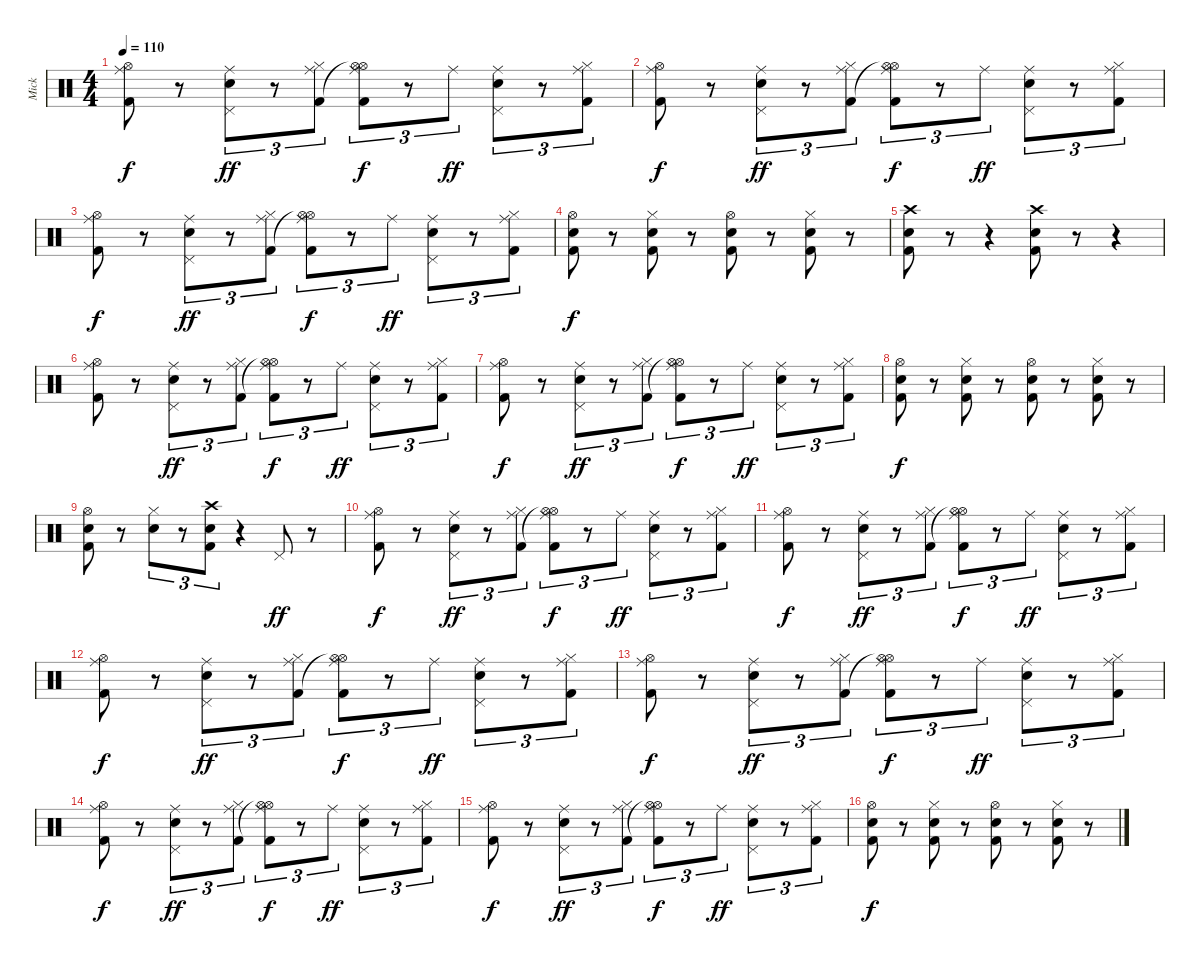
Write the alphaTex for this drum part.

\track ("Mick" "Mick") {instrument percussion}
\staff {score}
\articulation defaults
\ts (4 4)
\tempo 110
\clef neutral
\ks c
("Ride (middle)" "Hi-Hat (open)" "Kick (hit) 2").8{dy f} r.8 ("Ride (middle)" "Pedal Hi-Hat (hit)" "Snare (hit) 2").8{tu (3 2) dy ff} r.8{tu (3 2)} ("Ride (middle)" "Hi-Hat (closed)" "Kick (hit) 2").8{tu (3 2)} ("Hi-Hat (open)" "Ride (middle)" "Hi-Hat (open)"{t} "Kick (hit) 2").8{tu (3 2) dy f} r.8{tu (3 2)} "Ride (middle)".8{tu (3 2) dy ff} ("Ride (middle)" "Pedal Hi-Hat (hit)" "Snare (hit) 2").8{tu (3 2)} r.8{tu (3 2)} ("Ride (middle)" "Hi-Hat (closed)" "Kick (hit) 2").8{tu (3 2)} |
("Ride (middle)" "Hi-Hat (open)" "Kick (hit) 2").8{dy f} r.8 ("Ride (middle)" "Pedal Hi-Hat (hit)" "Snare (hit) 2").8{tu (3 2) dy ff} r.8{tu (3 2)} ("Ride (middle)" "Hi-Hat (closed)" "Kick (hit) 2").8{tu (3 2)} ("Hi-Hat (open)" "Ride (middle)" "Hi-Hat (open)"{t} "Kick (hit) 2").8{tu (3 2) dy f} r.8{tu (3 2)} "Ride (middle)".8{tu (3 2) dy ff} ("Ride (middle)" "Pedal Hi-Hat (hit)" "Snare (hit) 2").8{tu (3 2)} r.8{tu (3 2)} ("Ride (middle)" "Hi-Hat (closed)" "Kick (hit) 2").8{tu (3 2)} |
("Ride (middle)" "Hi-Hat (open)" "Kick (hit) 2").8{dy f} r.8 ("Ride (middle)" "Pedal Hi-Hat (hit)" "Snare (hit) 2").8{tu (3 2) dy ff} r.8{tu (3 2)} ("Ride (middle)" "Hi-Hat (closed)" "Kick (hit) 2").8{tu (3 2)} ("Hi-Hat (open)" "Ride (middle)" "Hi-Hat (open)"{t} "Kick (hit) 2").8{tu (3 2) dy f} r.8{tu (3 2)} "Ride (middle)".8{tu (3 2) dy ff} ("Ride (middle)" "Pedal Hi-Hat (hit)" "Snare (hit) 2").8{tu (3 2)} r.8{tu (3 2)} ("Ride (middle)" "Hi-Hat (closed)" "Kick (hit) 2").8{tu (3 2)} |
("Hi-Hat (open)" "Snare (hit) 2" "Kick (hit) 2").8{dy f} r.8 ("Hi-Hat (closed)" "Snare (hit) 2" "Kick (hit) 2").8 r.8 ("Hi-Hat (open)" "Snare (hit) 2" "Kick (hit) 2").8 r.8 ("Hi-Hat (closed)" "Snare (hit) 2" "Kick (hit) 2").8 r.8 |
("Crash high (hit)" "Snare (hit) 2" "Kick (hit) 2").8 r.8 r.4 ("Crash high (hit)" "Snare (hit) 2" "Kick (hit) 2").8 r.8 r.4 |
("Ride (middle)" "Hi-Hat (open)" "Kick (hit) 2").8 r.8 ("Ride (middle)" "Pedal Hi-Hat (hit)" "Snare (hit) 2").8{tu (3 2) dy ff} r.8{tu (3 2)} ("Ride (middle)" "Hi-Hat (closed)" "Kick (hit) 2").8{tu (3 2)} ("Hi-Hat (open)" "Ride (middle)" "Hi-Hat (open)"{t} "Kick (hit) 2").8{tu (3 2) dy f} r.8{tu (3 2)} "Ride (middle)".8{tu (3 2) dy ff} ("Ride (middle)" "Pedal Hi-Hat (hit)" "Snare (hit) 2").8{tu (3 2)} r.8{tu (3 2)} ("Ride (middle)" "Hi-Hat (closed)" "Kick (hit) 2").8{tu (3 2)} |
("Ride (middle)" "Hi-Hat (open)" "Kick (hit) 2").8{dy f} r.8 ("Ride (middle)" "Pedal Hi-Hat (hit)" "Snare (hit) 2").8{tu (3 2) dy ff} r.8{tu (3 2)} ("Ride (middle)" "Hi-Hat (closed)" "Kick (hit) 2").8{tu (3 2)} ("Hi-Hat (open)" "Ride (middle)" "Hi-Hat (open)"{t} "Kick (hit) 2").8{tu (3 2) dy f} r.8{tu (3 2)} "Ride (middle)".8{tu (3 2) dy ff} ("Ride (middle)" "Pedal Hi-Hat (hit)" "Snare (hit) 2").8{tu (3 2)} r.8{tu (3 2)} ("Ride (middle)" "Hi-Hat (closed)" "Kick (hit) 2").8{tu (3 2)} |
("Hi-Hat (open)" "Snare (hit) 2" "Kick (hit) 2").8{dy f} r.8 ("Hi-Hat (closed)" "Snare (hit) 2" "Kick (hit) 2").8 r.8 ("Hi-Hat (open)" "Snare (hit) 2" "Kick (hit) 2").8 r.8 ("Hi-Hat (closed)" "Snare (hit) 2" "Kick (hit) 2").8 r.8 |
("Hi-Hat (open)" "Snare (hit) 2" "Kick (hit) 2").8 r.8 ("Hi-Hat (closed)" "Snare (hit) 2").8{tu (3 2)} r.8{tu (3 2)} ("Crash high (hit)" "Snare (hit) 2" "Kick (hit) 2").8{tu (3 2)} r.4 "Pedal Hi-Hat (hit)".8{dy ff} r.8 |
("Ride (middle)" "Hi-Hat (open)" "Kick (hit) 2").8{dy f} r.8 ("Ride (middle)" "Pedal Hi-Hat (hit)" "Snare (hit) 2").8{tu (3 2) dy ff} r.8{tu (3 2)} ("Ride (middle)" "Hi-Hat (closed)" "Kick (hit) 2").8{tu (3 2)} ("Hi-Hat (open)" "Ride (middle)" "Hi-Hat (open)"{t} "Kick (hit) 2").8{tu (3 2) dy f} r.8{tu (3 2)} "Ride (middle)".8{tu (3 2) dy ff} ("Ride (middle)" "Pedal Hi-Hat (hit)" "Snare (hit) 2").8{tu (3 2)} r.8{tu (3 2)} ("Ride (middle)" "Hi-Hat (closed)" "Kick (hit) 2").8{tu (3 2)} |
("Ride (middle)" "Hi-Hat (open)" "Kick (hit) 2").8{dy f} r.8 ("Ride (middle)" "Pedal Hi-Hat (hit)" "Snare (hit) 2").8{tu (3 2) dy ff} r.8{tu (3 2)} ("Ride (middle)" "Hi-Hat (closed)" "Kick (hit) 2").8{tu (3 2)} ("Hi-Hat (open)" "Ride (middle)" "Hi-Hat (open)"{t} "Kick (hit) 2").8{tu (3 2) dy f} r.8{tu (3 2)} "Ride (middle)".8{tu (3 2) dy ff} ("Ride (middle)" "Pedal Hi-Hat (hit)" "Snare (hit) 2").8{tu (3 2)} r.8{tu (3 2)} ("Ride (middle)" "Hi-Hat (closed)" "Kick (hit) 2").8{tu (3 2)} |
("Ride (middle)" "Hi-Hat (open)" "Kick (hit) 2").8{dy f} r.8 ("Ride (middle)" "Pedal Hi-Hat (hit)" "Snare (hit) 2").8{tu (3 2) dy ff} r.8{tu (3 2)} ("Ride (middle)" "Hi-Hat (closed)" "Kick (hit) 2").8{tu (3 2)} ("Hi-Hat (open)" "Ride (middle)" "Hi-Hat (open)"{t} "Kick (hit) 2").8{tu (3 2) dy f} r.8{tu (3 2)} "Ride (middle)".8{tu (3 2) dy ff} ("Ride (middle)" "Pedal Hi-Hat (hit)" "Snare (hit) 2").8{tu (3 2)} r.8{tu (3 2)} ("Ride (middle)" "Hi-Hat (closed)" "Kick (hit) 2").8{tu (3 2)} |
("Ride (middle)" "Hi-Hat (open)" "Kick (hit) 2").8{dy f} r.8 ("Ride (middle)" "Pedal Hi-Hat (hit)" "Snare (hit) 2").8{tu (3 2) dy ff} r.8{tu (3 2)} ("Ride (middle)" "Hi-Hat (closed)" "Kick (hit) 2").8{tu (3 2)} ("Hi-Hat (open)" "Ride (middle)" "Hi-Hat (open)"{t} "Kick (hit) 2").8{tu (3 2) dy f} r.8{tu (3 2)} "Ride (middle)".8{tu (3 2) dy ff} ("Ride (middle)" "Pedal Hi-Hat (hit)" "Snare (hit) 2").8{tu (3 2)} r.8{tu (3 2)} ("Ride (middle)" "Hi-Hat (closed)" "Kick (hit) 2").8{tu (3 2)} |
("Ride (middle)" "Hi-Hat (open)" "Kick (hit) 2").8{dy f} r.8 ("Ride (middle)" "Pedal Hi-Hat (hit)" "Snare (hit) 2").8{tu (3 2) dy ff} r.8{tu (3 2)} ("Ride (middle)" "Hi-Hat (closed)" "Kick (hit) 2").8{tu (3 2)} ("Hi-Hat (open)" "Ride (middle)" "Hi-Hat (open)"{t} "Kick (hit) 2").8{tu (3 2) dy f} r.8{tu (3 2)} "Ride (middle)".8{tu (3 2) dy ff} ("Ride (middle)" "Pedal Hi-Hat (hit)" "Snare (hit) 2").8{tu (3 2)} r.8{tu (3 2)} ("Ride (middle)" "Hi-Hat (closed)" "Kick (hit) 2").8{tu (3 2)} |
("Ride (middle)" "Hi-Hat (open)" "Kick (hit) 2").8{dy f} r.8 ("Ride (middle)" "Pedal Hi-Hat (hit)" "Snare (hit) 2").8{tu (3 2) dy ff} r.8{tu (3 2)} ("Ride (middle)" "Hi-Hat (closed)" "Kick (hit) 2").8{tu (3 2)} ("Hi-Hat (open)" "Ride (middle)" "Hi-Hat (open)"{t} "Kick (hit) 2").8{tu (3 2) dy f} r.8{tu (3 2)} "Ride (middle)".8{tu (3 2) dy ff} ("Ride (middle)" "Pedal Hi-Hat (hit)" "Snare (hit) 2").8{tu (3 2)} r.8{tu (3 2)} ("Ride (middle)" "Hi-Hat (closed)" "Kick (hit) 2").8{tu (3 2)} |
("Hi-Hat (open)" "Snare (hit) 2" "Kick (hit) 2").8{dy f} r.8 ("Hi-Hat (closed)" "Snare (hit) 2" "Kick (hit) 2").8 r.8 ("Hi-Hat (open)" "Snare (hit) 2" "Kick (hit) 2").8 r.8 ("Hi-Hat (closed)" "Snare (hit) 2" "Kick (hit) 2").8 r.8
